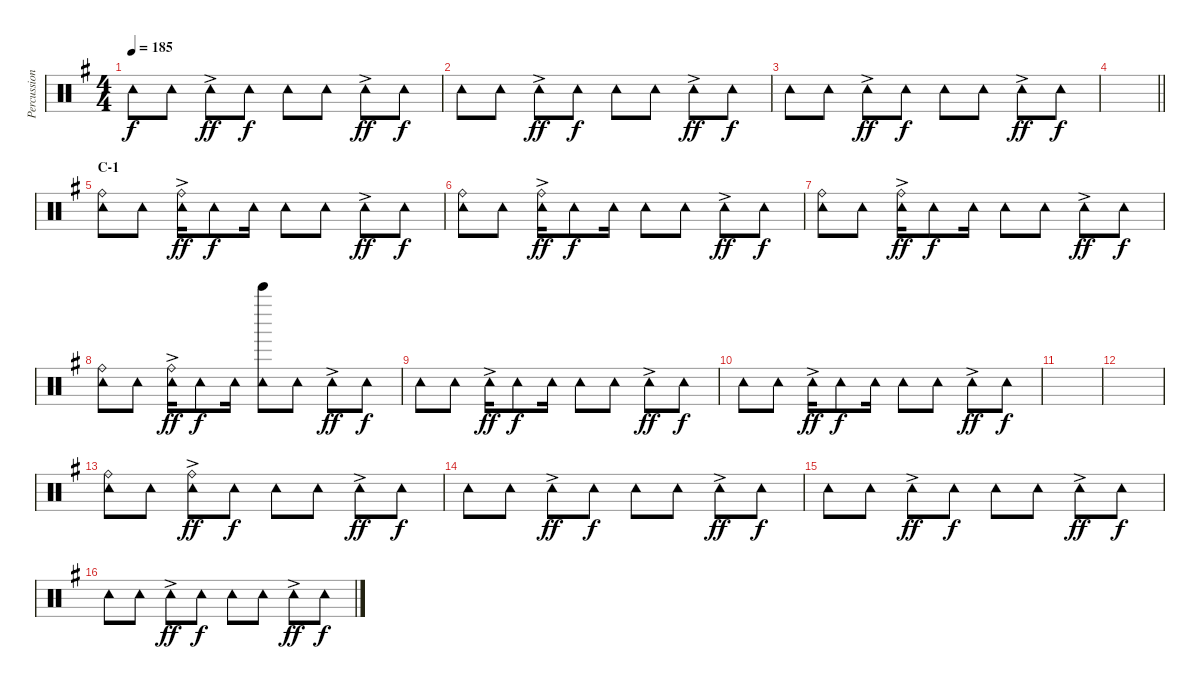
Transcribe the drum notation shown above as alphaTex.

\track ("Percussion I" "Percussion") {instrument percussion}
\staff {score}
\articulation defaults
\ts (4 4)
\tempo 185
\clef neutral
\ks g "Tambourine (hit)".8{dy f} "Tambourine (hit)".8 "Tambourine (hit)"{ac}.8{dy ff} "Tambourine (hit)".8{dy f} "Tambourine (hit)".8 "Tambourine (hit)".8 "Tambourine (hit)"{ac}.8{dy ff} "Tambourine (hit)".8{dy f}
|
"Tambourine (hit)".8 "Tambourine (hit)".8 "Tambourine (hit)"{ac}.8{dy ff} "Tambourine (hit)".8{dy f} "Tambourine (hit)".8 "Tambourine (hit)".8 "Tambourine (hit)"{ac}.8{dy ff} "Tambourine (hit)".8{dy f} |
"Tambourine (hit)".8 "Tambourine (hit)".8 "Tambourine (hit)"{ac}.8{dy ff} "Tambourine (hit)".8{dy f} "Tambourine (hit)".8 "Tambourine (hit)".8 "Tambourine (hit)"{ac}.8{dy ff} "Tambourine (hit)".8{dy f} |
\barLineRight lightlight
|
\section ("" "C-1")
("Ride (bell)" "Tambourine (hit)").8 "Tambourine (hit)".8 ("Ride (bell)" "Tambourine (hit)"{ac}).16{dy ff} "Tambourine (hit)".8{dy f} "Tambourine (hit)".16 "Tambourine (hit)".8 "Tambourine (hit)".8 "Tambourine (hit)"{ac}.8{dy ff} "Tambourine (hit)".8{dy f} |
("Ride (bell)" "Tambourine (hit)").8 "Tambourine (hit)".8 ("Ride (bell)" "Tambourine (hit)"{ac}).16{dy ff} "Tambourine (hit)".8{dy f} "Tambourine (hit)".16 "Tambourine (hit)".8 "Tambourine (hit)".8 "Tambourine (hit)"{ac}.8{dy ff} "Tambourine (hit)".8{dy f} |
("Ride (bell)" "Tambourine (hit)").8 "Tambourine (hit)".8 ("Ride (bell)" "Tambourine (hit)"{ac}).16{dy ff} "Tambourine (hit)".8{dy f} "Tambourine (hit)".16 "Tambourine (hit)".8 "Tambourine (hit)".8 "Tambourine (hit)"{ac}.8{dy ff} "Tambourine (hit)".8{dy f} |
("Ride (bell)" "Tambourine (hit)").8 "Tambourine (hit)".8 ("Ride (bell)" "Tambourine (hit)"{ac}).16{dy ff} "Tambourine (hit)".8{dy f} "Tambourine (hit)".16 ("Tambourine (hit)" "Bell Tree (hit)").8 "Tambourine (hit)".8 "Tambourine (hit)"{ac}.8{dy ff} "Tambourine (hit)".8{dy f} |
"Tambourine (hit)".8 "Tambourine (hit)".8 "Tambourine (hit)"{ac}.16{dy ff} "Tambourine (hit)".8{dy f} "Tambourine (hit)".16 "Tambourine (hit)".8 "Tambourine (hit)".8 "Tambourine (hit)"{ac}.8{dy ff} "Tambourine (hit)".8{dy f} |
"Tambourine (hit)".8 "Tambourine (hit)".8 "Tambourine (hit)"{ac}.16{dy ff} "Tambourine (hit)".8{dy f} "Tambourine (hit)".16 "Tambourine (hit)".8 "Tambourine (hit)".8 "Tambourine (hit)"{ac}.8{dy ff} "Tambourine (hit)".8{dy f} |
|
|
("Ride (bell)" "Tambourine (hit)").8 "Tambourine (hit)".8 ("Ride (bell)" "Tambourine (hit)"{ac}).8{dy ff} "Tambourine (hit)".8{dy f} "Tambourine (hit)".8 "Tambourine (hit)".8 "Tambourine (hit)"{ac}.8{dy ff} "Tambourine (hit)".8{dy f} |
"Tambourine (hit)".8 "Tambourine (hit)".8 "Tambourine (hit)"{ac}.8{dy ff} "Tambourine (hit)".8{dy f} "Tambourine (hit)".8 "Tambourine (hit)".8 "Tambourine (hit)"{ac}.8{dy ff} "Tambourine (hit)".8{dy f} |
"Tambourine (hit)".8 "Tambourine (hit)".8 "Tambourine (hit)"{ac}.8{dy ff} "Tambourine (hit)".8{dy f} "Tambourine (hit)".8 "Tambourine (hit)".8 "Tambourine (hit)"{ac}.8{dy ff} "Tambourine (hit)".8{dy f} |
"Tambourine (hit)".8 "Tambourine (hit)".8 "Tambourine (hit)"{ac}.8{dy ff} "Tambourine (hit)".8{dy f} "Tambourine (hit)".8 "Tambourine (hit)".8 "Tambourine (hit)"{ac}.8{dy ff} "Tambourine (hit)".8{dy f}
